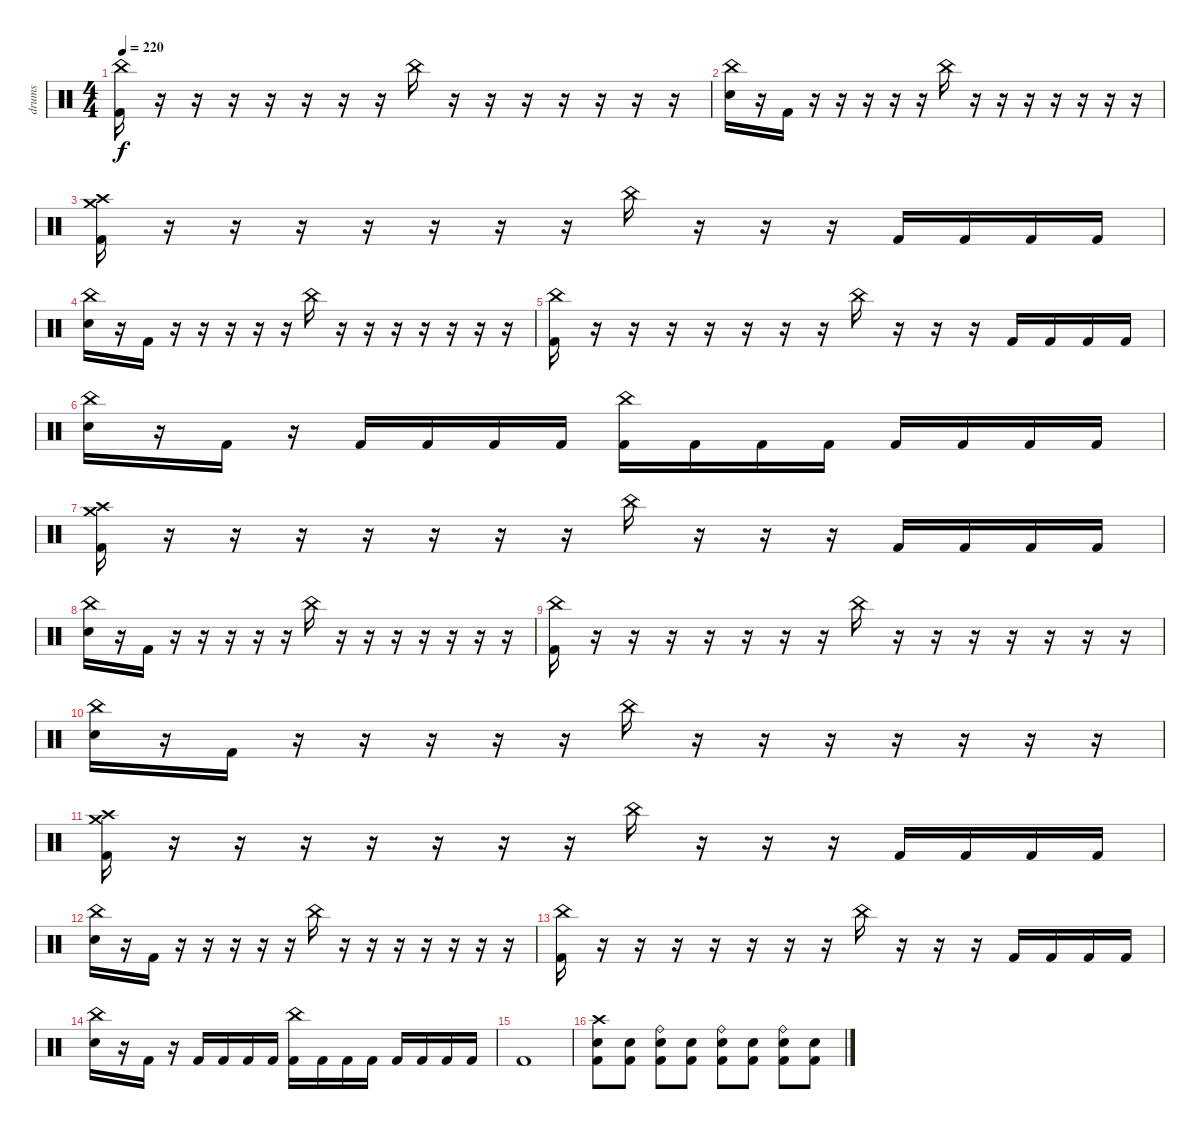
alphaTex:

\track ("drums" "drums") {instrument percussion}
\staff {score}
\articulation defaults
\ts (4 4)
\tempo 220
\clef neutral
\ks c
("China (hit)" "Kick (hit) 2").16{dy f} r.16 r.16 r.16 r.16 r.16 r.16 r.16 "China (hit)".16 r.16 r.16 r.16 r.16 r.16 r.16 r.16 |
("China (hit)" "Electric Snare (hit)").16 r.16 "Kick (hit) 2".16 r.16 r.16 r.16 r.16 r.16 "China (hit)".16 r.16 r.16 r.16 r.16 r.16 r.16 r.16 |
("Crash high (hit)" "Crash medium (hit)" "Kick (hit) 2").16 r.16 r.16 r.16 r.16 r.16 r.16 r.16 "China (hit)".16 r.16 r.16 r.16 "Kick (hit) 2".16 "Kick (hit) 2".16 "Kick (hit) 2".16 "Kick (hit) 2".16 |
("China (hit)" "Electric Snare (hit)").16 r.16 "Kick (hit) 2".16 r.16 r.16 r.16 r.16 r.16 "China (hit)".16 r.16 r.16 r.16 r.16 r.16 r.16 r.16 |
("China (hit)" "Kick (hit) 2").16 r.16 r.16 r.16 r.16 r.16 r.16 r.16 "China (hit)".16 r.16 r.16 r.16 "Kick (hit) 2".16 "Kick (hit) 2".16 "Kick (hit) 2".16 "Kick (hit) 2".16 |
("China (hit)" "Electric Snare (hit)").16 r.16 "Kick (hit) 2".16 r.16 "Kick (hit) 2".16 "Kick (hit) 2".16 "Kick (hit) 2".16 "Kick (hit) 2".16 ("China (hit)" "Kick (hit) 2").16 "Kick (hit) 2".16 "Kick (hit) 2".16 "Kick (hit) 2".16 "Kick (hit) 2".16 "Kick (hit) 2".16 "Kick (hit) 2".16 "Kick (hit) 2".16 |
("Crash high (hit)" "Crash medium (hit)" "Kick (hit) 2").16 r.16 r.16 r.16 r.16 r.16 r.16 r.16 "China (hit)".16 r.16 r.16 r.16 "Kick (hit) 2".16 "Kick (hit) 2".16 "Kick (hit) 2".16 "Kick (hit) 2".16 |
("China (hit)" "Electric Snare (hit)").16 r.16 "Kick (hit) 2".16 r.16 r.16 r.16 r.16 r.16 "China (hit)".16 r.16 r.16 r.16 r.16 r.16 r.16 r.16 |
("China (hit)" "Kick (hit) 2").16 r.16 r.16 r.16 r.16 r.16 r.16 r.16 "China (hit)".16 r.16 r.16 r.16 r.16 r.16 r.16 r.16 |
("China (hit)" "Electric Snare (hit)").16 r.16 "Kick (hit) 2".16 r.16 r.16 r.16 r.16 r.16 "China (hit)".16 r.16 r.16 r.16 r.16 r.16 r.16 r.16 |
("Crash high (hit)" "Crash medium (hit)" "Kick (hit) 2").16 r.16 r.16 r.16 r.16 r.16 r.16 r.16 "China (hit)".16 r.16 r.16 r.16 "Kick (hit) 2".16 "Kick (hit) 2".16 "Kick (hit) 2".16 "Kick (hit) 2".16 |
("China (hit)" "Electric Snare (hit)").16 r.16 "Kick (hit) 2".16 r.16 r.16 r.16 r.16 r.16 "China (hit)".16 r.16 r.16 r.16 r.16 r.16 r.16 r.16 |
("China (hit)" "Kick (hit) 2").16 r.16 r.16 r.16 r.16 r.16 r.16 r.16 "China (hit)".16 r.16 r.16 r.16 "Kick (hit) 2".16 "Kick (hit) 2".16 "Kick (hit) 2".16 "Kick (hit) 2".16 |
("China (hit)" "Electric Snare (hit)").16 r.16 "Kick (hit) 2".16 r.16 "Kick (hit) 2".16 "Kick (hit) 2".16 "Kick (hit) 2".16 "Kick (hit) 2".16 ("China (hit)" "Kick (hit) 2").16 "Kick (hit) 2".16 "Kick (hit) 2".16 "Kick (hit) 2".16 "Kick (hit) 2".16 "Kick (hit) 2".16 "Kick (hit) 2".16 "Kick (hit) 2".16 |
"Kick (hit) 2".1 |
("Crash high (hit)" "Electric Snare (hit)" "Kick (hit) 2").8 ("Electric Snare (hit)" "Kick (hit) 2").8 ("Ride (bell)" "Electric Snare (hit)" "Kick (hit) 2").8 ("Electric Snare (hit)" "Kick (hit) 2").8 ("Ride (bell)" "Electric Snare (hit)" "Kick (hit) 2").8 ("Electric Snare (hit)" "Kick (hit) 2").8 ("Ride (bell)" "Electric Snare (hit)" "Kick (hit) 2").8 ("Electric Snare (hit)" "Kick (hit) 2").8
